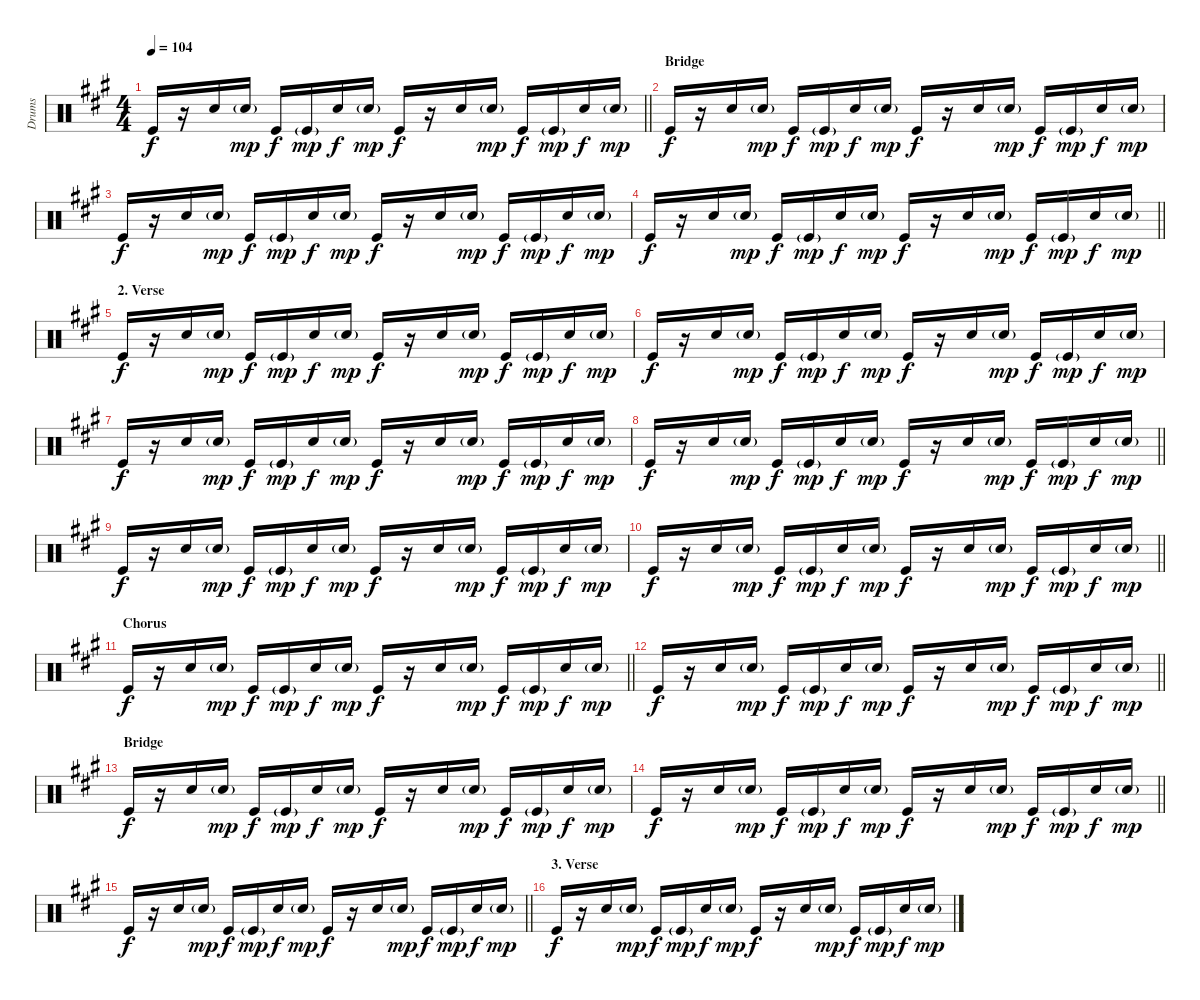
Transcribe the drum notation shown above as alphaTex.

\track ("Drums" "Drums") {instrument percussion}
\staff {score}
\articulation defaults
\ts (4 4)
\tempo 104
\clef neutral
\barLineRight lightlight
\ks a "Kick (hit)".16{dy f}
r.16 "Electric Snare (hit)".16 "Electric Snare (hit)"{g}.16{dy mp} "Kick (hit)".16{dy f} "Kick (hit)"{g}.16{dy mp} "Electric Snare (hit)".16{dy f} "Electric Snare (hit)"{g}.16{dy mp} "Kick (hit)".16{dy f} r.16 "Electric Snare (hit)".16 "Electric Snare (hit)"{g}.16{dy mp} "Kick (hit)".16{dy f} "Kick (hit)"{g}.16{dy mp} "Electric Snare (hit)".16{dy f} "Electric Snare (hit)"{g}.16{dy mp} |
\section ("" "Bridge")
"Kick (hit)".16{dy f} r.16 "Electric Snare (hit)".16 "Electric Snare (hit)"{g}.16{dy mp} "Kick (hit)".16{dy f} "Kick (hit)"{g}.16{dy mp} "Electric Snare (hit)".16{dy f} "Electric Snare (hit)"{g}.16{dy mp} "Kick (hit)".16{dy f} r.16 "Electric Snare (hit)".16 "Electric Snare (hit)"{g}.16{dy mp} "Kick (hit)".16{dy f} "Kick (hit)"{g}.16{dy mp} "Electric Snare (hit)".16{dy f} "Electric Snare (hit)"{g}.16{dy mp} |
"Kick (hit)".16{dy f} r.16 "Electric Snare (hit)".16 "Electric Snare (hit)"{g}.16{dy mp} "Kick (hit)".16{dy f} "Kick (hit)"{g}.16{dy mp} "Electric Snare (hit)".16{dy f} "Electric Snare (hit)"{g}.16{dy mp} "Kick (hit)".16{dy f} r.16 "Electric Snare (hit)".16 "Electric Snare (hit)"{g}.16{dy mp} "Kick (hit)".16{dy f} "Kick (hit)"{g}.16{dy mp} "Electric Snare (hit)".16{dy f} "Electric Snare (hit)"{g}.16{dy mp} |
\barLineRight lightlight "Kick (hit)".16{dy f}
r.16 "Electric Snare (hit)".16 "Electric Snare (hit)"{g}.16{dy mp} "Kick (hit)".16{dy f} "Kick (hit)"{g}.16{dy mp} "Electric Snare (hit)".16{dy f} "Electric Snare (hit)"{g}.16{dy mp} "Kick (hit)".16{dy f} r.16 "Electric Snare (hit)".16 "Electric Snare (hit)"{g}.16{dy mp} "Kick (hit)".16{dy f} "Kick (hit)"{g}.16{dy mp} "Electric Snare (hit)".16{dy f} "Electric Snare (hit)"{g}.16{dy mp} |
\section ("" "2. Verse")
"Kick (hit)".16{dy f} r.16 "Electric Snare (hit)".16 "Electric Snare (hit)"{g}.16{dy mp} "Kick (hit)".16{dy f} "Kick (hit)"{g}.16{dy mp} "Electric Snare (hit)".16{dy f} "Electric Snare (hit)"{g}.16{dy mp} "Kick (hit)".16{dy f} r.16 "Electric Snare (hit)".16 "Electric Snare (hit)"{g}.16{dy mp} "Kick (hit)".16{dy f} "Kick (hit)"{g}.16{dy mp} "Electric Snare (hit)".16{dy f} "Electric Snare (hit)"{g}.16{dy mp} |
"Kick (hit)".16{dy f} r.16 "Electric Snare (hit)".16 "Electric Snare (hit)"{g}.16{dy mp} "Kick (hit)".16{dy f} "Kick (hit)"{g}.16{dy mp} "Electric Snare (hit)".16{dy f} "Electric Snare (hit)"{g}.16{dy mp} "Kick (hit)".16{dy f} r.16 "Electric Snare (hit)".16 "Electric Snare (hit)"{g}.16{dy mp} "Kick (hit)".16{dy f} "Kick (hit)"{g}.16{dy mp} "Electric Snare (hit)".16{dy f} "Electric Snare (hit)"{g}.16{dy mp} |
"Kick (hit)".16{dy f} r.16 "Electric Snare (hit)".16 "Electric Snare (hit)"{g}.16{dy mp} "Kick (hit)".16{dy f} "Kick (hit)"{g}.16{dy mp} "Electric Snare (hit)".16{dy f} "Electric Snare (hit)"{g}.16{dy mp} "Kick (hit)".16{dy f} r.16 "Electric Snare (hit)".16 "Electric Snare (hit)"{g}.16{dy mp} "Kick (hit)".16{dy f} "Kick (hit)"{g}.16{dy mp} "Electric Snare (hit)".16{dy f} "Electric Snare (hit)"{g}.16{dy mp} |
\barLineRight lightlight "Kick (hit)".16{dy f}
r.16 "Electric Snare (hit)".16 "Electric Snare (hit)"{g}.16{dy mp} "Kick (hit)".16{dy f} "Kick (hit)"{g}.16{dy mp} "Electric Snare (hit)".16{dy f} "Electric Snare (hit)"{g}.16{dy mp} "Kick (hit)".16{dy f} r.16 "Electric Snare (hit)".16 "Electric Snare (hit)"{g}.16{dy mp} "Kick (hit)".16{dy f} "Kick (hit)"{g}.16{dy mp} "Electric Snare (hit)".16{dy f} "Electric Snare (hit)"{g}.16{dy mp} |
"Kick (hit)".16{dy f} r.16 "Electric Snare (hit)".16 "Electric Snare (hit)"{g}.16{dy mp} "Kick (hit)".16{dy f} "Kick (hit)"{g}.16{dy mp} "Electric Snare (hit)".16{dy f} "Electric Snare (hit)"{g}.16{dy mp} "Kick (hit)".16{dy f} r.16 "Electric Snare (hit)".16 "Electric Snare (hit)"{g}.16{dy mp} "Kick (hit)".16{dy f} "Kick (hit)"{g}.16{dy mp} "Electric Snare (hit)".16{dy f} "Electric Snare (hit)"{g}.16{dy mp} |
\barLineRight lightlight "Kick (hit)".16{dy f}
r.16 "Electric Snare (hit)".16 "Electric Snare (hit)"{g}.16{dy mp} "Kick (hit)".16{dy f} "Kick (hit)"{g}.16{dy mp} "Electric Snare (hit)".16{dy f} "Electric Snare (hit)"{g}.16{dy mp} "Kick (hit)".16{dy f} r.16 "Electric Snare (hit)".16 "Electric Snare (hit)"{g}.16{dy mp} "Kick (hit)".16{dy f} "Kick (hit)"{g}.16{dy mp} "Electric Snare (hit)".16{dy f} "Electric Snare (hit)"{g}.16{dy mp} |
\section ("" "Chorus")
\barLineRight lightlight "Kick (hit)".16{dy f}
r.16 "Electric Snare (hit)".16 "Electric Snare (hit)"{g}.16{dy mp} "Kick (hit)".16{dy f} "Kick (hit)"{g}.16{dy mp} "Electric Snare (hit)".16{dy f} "Electric Snare (hit)"{g}.16{dy mp} "Kick (hit)".16{dy f} r.16 "Electric Snare (hit)".16 "Electric Snare (hit)"{g}.16{dy mp} "Kick (hit)".16{dy f} "Kick (hit)"{g}.16{dy mp} "Electric Snare (hit)".16{dy f} "Electric Snare (hit)"{g}.16{dy mp} |
\barLineRight lightlight "Kick (hit)".16{dy f}
r.16 "Electric Snare (hit)".16 "Electric Snare (hit)"{g}.16{dy mp} "Kick (hit)".16{dy f} "Kick (hit)"{g}.16{dy mp} "Electric Snare (hit)".16{dy f} "Electric Snare (hit)"{g}.16{dy mp} "Kick (hit)".16{dy f} r.16 "Electric Snare (hit)".16 "Electric Snare (hit)"{g}.16{dy mp} "Kick (hit)".16{dy f} "Kick (hit)"{g}.16{dy mp} "Electric Snare (hit)".16{dy f} "Electric Snare (hit)"{g}.16{dy mp} |
\section ("" "Bridge")
"Kick (hit)".16{dy f} r.16 "Electric Snare (hit)".16 "Electric Snare (hit)"{g}.16{dy mp} "Kick (hit)".16{dy f} "Kick (hit)"{g}.16{dy mp} "Electric Snare (hit)".16{dy f} "Electric Snare (hit)"{g}.16{dy mp} "Kick (hit)".16{dy f} r.16 "Electric Snare (hit)".16 "Electric Snare (hit)"{g}.16{dy mp} "Kick (hit)".16{dy f} "Kick (hit)"{g}.16{dy mp} "Electric Snare (hit)".16{dy f} "Electric Snare (hit)"{g}.16{dy mp} |
\barLineRight lightlight "Kick (hit)".16{dy f}
r.16 "Electric Snare (hit)".16 "Electric Snare (hit)"{g}.16{dy mp} "Kick (hit)".16{dy f} "Kick (hit)"{g}.16{dy mp} "Electric Snare (hit)".16{dy f} "Electric Snare (hit)"{g}.16{dy mp} "Kick (hit)".16{dy f} r.16 "Electric Snare (hit)".16 "Electric Snare (hit)"{g}.16{dy mp} "Kick (hit)".16{dy f} "Kick (hit)"{g}.16{dy mp} "Electric Snare (hit)".16{dy f} "Electric Snare (hit)"{g}.16{dy mp} |
\barLineRight lightlight "Kick (hit)".16{dy f}
r.16 "Electric Snare (hit)".16 "Electric Snare (hit)"{g}.16{dy mp} "Kick (hit)".16{dy f} "Kick (hit)"{g}.16{dy mp} "Electric Snare (hit)".16{dy f} "Electric Snare (hit)"{g}.16{dy mp} "Kick (hit)".16{dy f} r.16 "Electric Snare (hit)".16 "Electric Snare (hit)"{g}.16{dy mp} "Kick (hit)".16{dy f} "Kick (hit)"{g}.16{dy mp} "Electric Snare (hit)".16{dy f} "Electric Snare (hit)"{g}.16{dy mp} |
\section ("" "3. Verse")
"Kick (hit)".16{dy f} r.16 "Electric Snare (hit)".16 "Electric Snare (hit)"{g}.16{dy mp} "Kick (hit)".16{dy f} "Kick (hit)"{g}.16{dy mp} "Electric Snare (hit)".16{dy f} "Electric Snare (hit)"{g}.16{dy mp} "Kick (hit)".16{dy f} r.16 "Electric Snare (hit)".16 "Electric Snare (hit)"{g}.16{dy mp} "Kick (hit)".16{dy f} "Kick (hit)"{g}.16{dy mp} "Electric Snare (hit)".16{dy f} "Electric Snare (hit)"{g}.16{dy mp}
